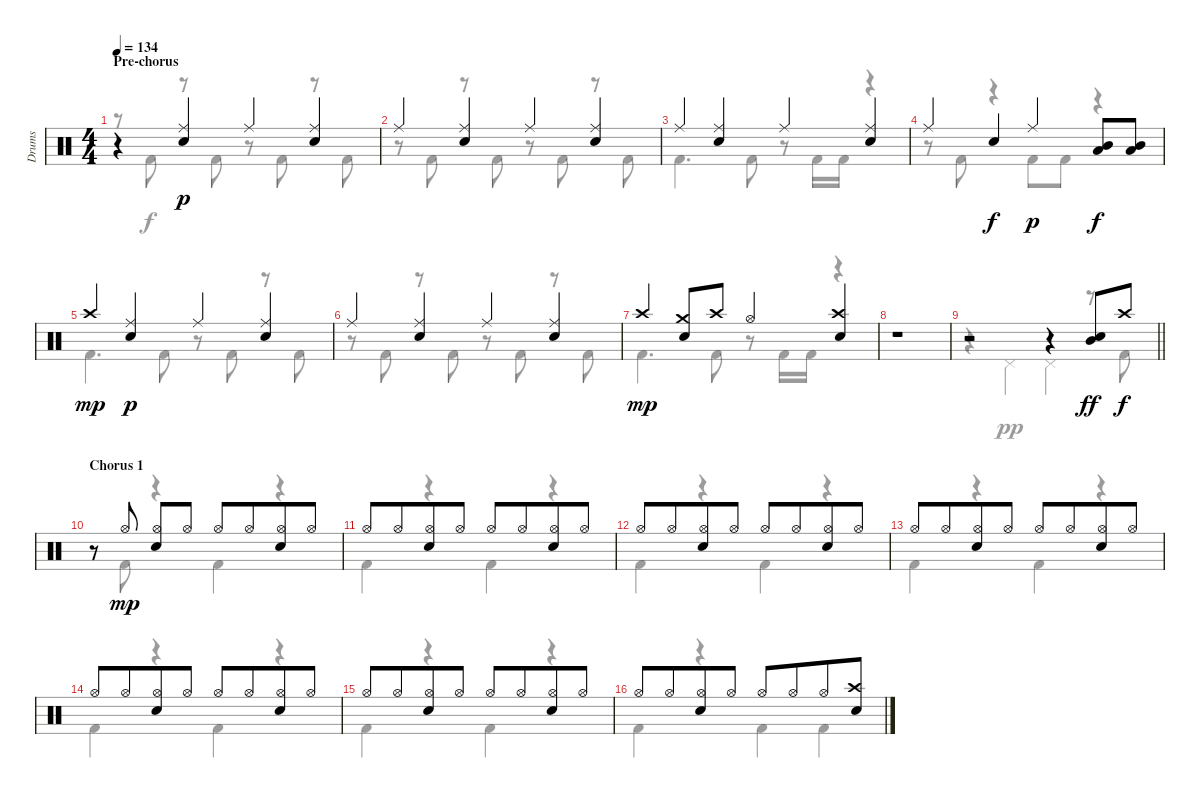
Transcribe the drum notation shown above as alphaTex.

\track ("Drums" "Drums") {instrument percussion}
\staff {score}
\articulation defaults
\voice
\ts (4 4)
\section ("" "Pre-chorus")
\tempo 134
\clef neutral
\ks c
r.4{dy mp} ("Electric Snare (hit)" "Ride (middle)").4{dy p} "Ride (middle)".4 ("Electric Snare (hit)" "Ride (middle)").4 |
"Ride (middle)".4 ("Electric Snare (hit)" "Ride (middle)").4 "Ride (middle)".4 ("Electric Snare (hit)" "Ride (middle)").4 |
"Ride (middle)".4 ("Electric Snare (hit)" "Ride (middle)").4 "Ride (middle)".4 ("Electric Snare (hit)" "Ride (middle)").4 |
"Ride (middle)".4 "Electric Snare (hit)".4{dy f} "Ride (middle)".4{dy p} ("Mid Tom (hit)" "Low Tom (hit)").8{dy f} ("Mid Tom (hit)" "Low Tom (hit)").8 |
"Crash high (hit)".4{dy mp} ("Electric Snare (hit)" "Ride (middle)").4{dy p} "Ride (middle)".4 ("Electric Snare (hit)" "Ride (middle)").4 |
"Ride (middle)".4 ("Electric Snare (hit)" "Ride (middle)").4 "Ride (middle)".4 ("Electric Snare (hit)" "Ride (middle)").4 |
"Crash high (hit)".4{dy mp} ("Electric Snare (hit)" "Crash medium (hit)").8 "Crash high (hit)".8 "Hi-Hat (open)".4 ("Electric Snare (hit)" "Crash high (hit)").4 |
r.1 |
\barLineRight lightlight
r.2 r.4 ("Electric Snare (hit)" "Mid Tom (hit)").8{dy ff} "Crash high (hit)".8{dy f} |
\section ("" "Chorus 1")
r.8 "Hi-Hat (open)".8{dy mp} ("Hi-Hat (open)" "Electric Snare (hit)").8 "Hi-Hat (open)".8 "Hi-Hat (open)".8 "Hi-Hat (open)".8{beam merge} ("Hi-Hat (open)" "Electric Snare (hit)").8 "Hi-Hat (open)".8 |
"Hi-Hat (open)".8 "Hi-Hat (open)".8{beam merge} ("Hi-Hat (open)" "Electric Snare (hit)").8 "Hi-Hat (open)".8 "Hi-Hat (open)".8 "Hi-Hat (open)".8{beam merge} ("Hi-Hat (open)" "Electric Snare (hit)").8 "Hi-Hat (open)".8 |
"Hi-Hat (open)".8 "Hi-Hat (open)".8{beam merge} ("Hi-Hat (open)" "Electric Snare (hit)").8 "Hi-Hat (open)".8 "Hi-Hat (open)".8 "Hi-Hat (open)".8{beam merge} ("Hi-Hat (open)" "Electric Snare (hit)").8 "Hi-Hat (open)".8 |
"Hi-Hat (open)".8 "Hi-Hat (open)".8{beam merge} ("Hi-Hat (open)" "Electric Snare (hit)").8 "Hi-Hat (open)".8 "Hi-Hat (open)".8 "Hi-Hat (open)".8{beam merge} ("Hi-Hat (open)" "Electric Snare (hit)").8 "Hi-Hat (open)".8 |
"Hi-Hat (open)".8 "Hi-Hat (open)".8{beam merge} ("Hi-Hat (open)" "Electric Snare (hit)").8 "Hi-Hat (open)".8 "Hi-Hat (open)".8 "Hi-Hat (open)".8{beam merge} ("Hi-Hat (open)" "Electric Snare (hit)").8 "Hi-Hat (open)".8 |
"Hi-Hat (open)".8 "Hi-Hat (open)".8{beam merge} ("Hi-Hat (open)" "Electric Snare (hit)").8 "Hi-Hat (open)".8 "Hi-Hat (open)".8 "Hi-Hat (open)".8{beam merge} ("Hi-Hat (open)" "Electric Snare (hit)").8 "Hi-Hat (open)".8 |
"Hi-Hat (open)".8 "Hi-Hat (open)".8{beam merge} ("Hi-Hat (open)" "Electric Snare (hit)").8 "Hi-Hat (open)".8 "Hi-Hat (open)".8 "Hi-Hat (open)".8{beam merge} "Hi-Hat (open)".8 ("Crash high (hit)" "Electric Snare (hit)").8
\voice
\clef neutral
\ottava regular
\simile none
\ks c
r.8{dy f} "Kick (hit) 2".8 r.8 "Kick (hit) 2".8 r.8 "Kick (hit) 2".8 r.8 "Kick (hit) 2".8 |
r.8 "Kick (hit) 2".8 r.8 "Kick (hit) 2".8 r.8 "Kick (hit) 2".8 r.8 "Kick (hit) 2".8 |
"Kick (hit) 2".4{d} "Kick (hit) 2".8 r.8 "Kick (hit) 2".16 "Kick (hit) 2".16 r.4 |
r.8 "Kick (hit) 2".8 r.4 "Kick (hit) 2".8 "Kick (hit) 2".8 r.4 |
"Kick (hit) 2".4{d} "Kick (hit) 2".8 r.8 "Kick (hit) 2".8 r.8 "Kick (hit) 2".8 |
r.8 "Kick (hit) 2".8 r.8 "Kick (hit) 2".8 r.8 "Kick (hit) 2".8 r.8 "Kick (hit) 2".8 |
"Kick (hit) 2".4{d} "Kick (hit) 2".8 r.8 "Kick (hit) 2".16 "Kick (hit) 2".16 r.4 |
|
\barLineRight lightlight
r.4 "Pedal Hi-Hat (hit)".4{dy pp} "Pedal Hi-Hat (hit)".4 r.8 "Kick (hit) 2".8{dy f} |
r.8 "Kick (hit) 2".8 r.4 "Kick (hit) 2".4 r.4 |
"Kick (hit) 2".4 r.4 "Kick (hit) 2".4 r.4 |
"Kick (hit) 2".4 r.4 "Kick (hit) 2".4 r.4 |
"Kick (hit) 2".4 r.4 "Kick (hit) 2".4 r.4 |
"Kick (hit) 2".4 r.4 "Kick (hit) 2".4 r.4 |
"Kick (hit) 2".4 r.4 "Kick (hit) 2".4 r.4 |
"Kick (hit) 2".4 r.4 "Kick (hit) 2".4 "Kick (hit) 2".4
